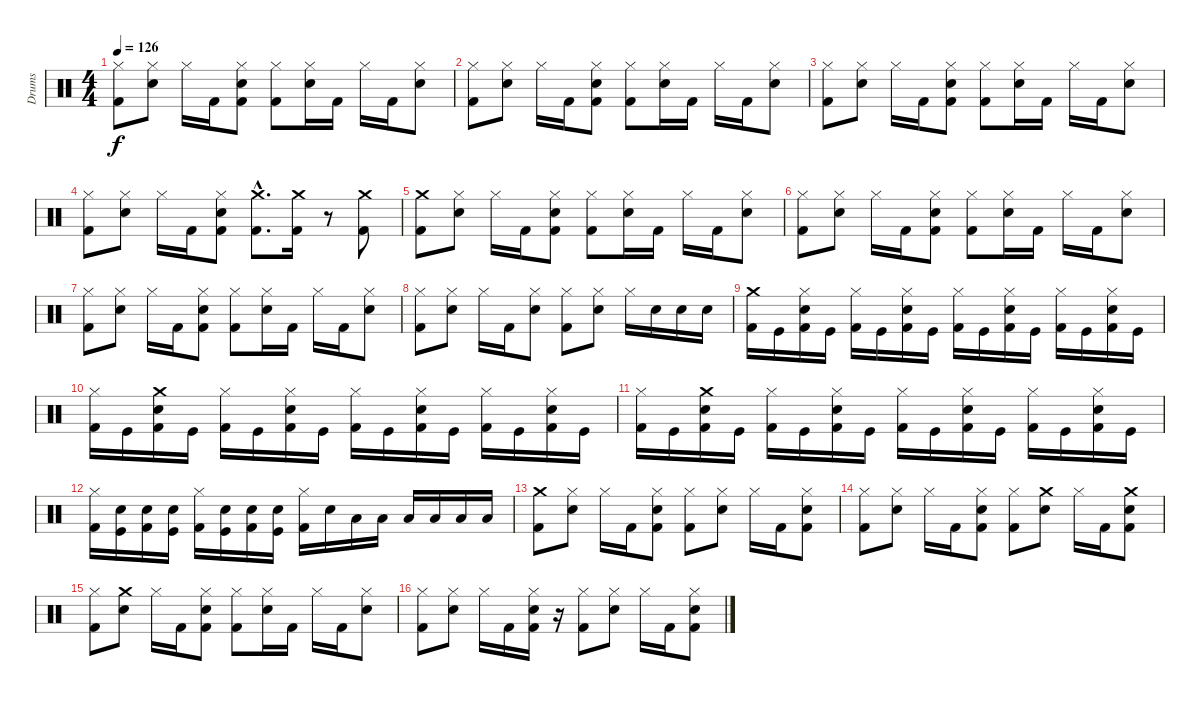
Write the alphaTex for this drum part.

\track ("Drums" "Drums") {instrument percussion}
\staff {score}
\articulation defaults
\ts (4 4)
\tempo 126
\clef neutral
\ks c
("Hi-Hat (closed)" "Kick (hit) 2").8{dy f} ("Snare (hit) 2" "Hi-Hat (closed)").8 "Hi-Hat (closed)".16 "Kick (hit) 2".16 ("Kick (hit) 2" "Snare (hit) 2" "Hi-Hat (closed)").8 ("Kick (hit) 2" "Hi-Hat (closed)").8 ("Snare (hit) 2" "Hi-Hat (closed)").16 "Kick (hit) 2".16 "Hi-Hat (closed)".16 "Kick (hit) 2".16 ("Snare (hit) 2" "Hi-Hat (closed)").8 |
("Hi-Hat (closed)" "Kick (hit) 2").8 ("Snare (hit) 2" "Hi-Hat (closed)").8 "Hi-Hat (closed)".16 "Kick (hit) 2".16 ("Kick (hit) 2" "Snare (hit) 2" "Hi-Hat (closed)").8 ("Kick (hit) 2" "Hi-Hat (closed)").8 ("Snare (hit) 2" "Hi-Hat (closed)").16 "Kick (hit) 2".16 "Hi-Hat (closed)".16 "Kick (hit) 2".16 ("Snare (hit) 2" "Hi-Hat (closed)").8 |
("Hi-Hat (closed)" "Kick (hit) 2").8 ("Snare (hit) 2" "Hi-Hat (closed)").8 "Hi-Hat (closed)".16 "Kick (hit) 2".16 ("Kick (hit) 2" "Snare (hit) 2" "Hi-Hat (closed)").8 ("Kick (hit) 2" "Hi-Hat (closed)").8 ("Snare (hit) 2" "Hi-Hat (closed)").16 "Kick (hit) 2".16 "Hi-Hat (closed)".16 "Kick (hit) 2".16 ("Snare (hit) 2" "Hi-Hat (closed)").8 |
("Hi-Hat (closed)" "Kick (hit) 2").8 ("Snare (hit) 2" "Hi-Hat (closed)").8 "Hi-Hat (closed)".16 "Kick (hit) 2".16 ("Kick (hit) 2" "Snare (hit) 2" "Hi-Hat (closed)").8 ("Kick (hit) 2"{hac} "Crash medium (hit)"{hac}).8{d} ("Kick (hit) 2" "Crash medium (hit)").16 r.8 ("Kick (hit) 2" "Crash medium (hit)").8 |
("Crash medium (hit)" "Kick (hit) 2").8 ("Snare (hit) 2" "Hi-Hat (closed)").8 "Hi-Hat (closed)".16 "Kick (hit) 2".16 ("Kick (hit) 2" "Snare (hit) 2" "Hi-Hat (closed)").8 ("Kick (hit) 2" "Hi-Hat (closed)").8 ("Snare (hit) 2" "Hi-Hat (closed)").16 "Kick (hit) 2".16 "Hi-Hat (closed)".16 "Kick (hit) 2".16 ("Snare (hit) 2" "Hi-Hat (closed)").8 |
("Hi-Hat (closed)" "Kick (hit) 2").8 ("Snare (hit) 2" "Hi-Hat (closed)").8 "Hi-Hat (closed)".16 "Kick (hit) 2".16 ("Kick (hit) 2" "Snare (hit) 2" "Hi-Hat (closed)").8 ("Kick (hit) 2" "Hi-Hat (closed)").8 ("Snare (hit) 2" "Hi-Hat (closed)").16 "Kick (hit) 2".16 "Hi-Hat (closed)".16 "Kick (hit) 2".16 ("Snare (hit) 2" "Hi-Hat (closed)").8 |
("Hi-Hat (closed)" "Kick (hit) 2").8 ("Snare (hit) 2" "Hi-Hat (closed)").8 "Hi-Hat (closed)".16 "Kick (hit) 2".16 ("Kick (hit) 2" "Snare (hit) 2" "Hi-Hat (closed)").8 ("Kick (hit) 2" "Hi-Hat (closed)").8 ("Snare (hit) 2" "Hi-Hat (closed)").16 "Kick (hit) 2".16 "Hi-Hat (closed)".16 "Kick (hit) 2".16 ("Snare (hit) 2" "Hi-Hat (closed)").8 |
("Hi-Hat (closed)" "Kick (hit) 2").8 ("Snare (hit) 2" "Hi-Hat (closed)").8 "Hi-Hat (closed)".16 "Kick (hit) 2".16 ("Snare (hit) 2" "Hi-Hat (closed)").8 ("Hi-Hat (closed)" "Kick (hit) 2").8 ("Hi-Hat (closed)" "Snare (hit) 2").8 "Hi-Hat (closed)".16 "Snare (hit) 2".16 "Snare (hit) 2".16 "Snare (hit) 2".16 |
("Crash medium (hit)" "Kick (hit) 2").16 "Kick (hit)".16 ("Snare (hit) 2" "Hi-Hat (closed)" "Kick (hit) 2").16 "Kick (hit)".16 ("Hi-Hat (closed)" "Kick (hit) 2").16 "Kick (hit)".16 ("Snare (hit) 2" "Hi-Hat (closed)" "Kick (hit) 2").16 "Kick (hit)".16 ("Hi-Hat (closed)" "Kick (hit) 2").16 "Kick (hit)".16 ("Snare (hit) 2" "Hi-Hat (closed)" "Kick (hit) 2").16 "Kick (hit)".16 ("Hi-Hat (closed)" "Kick (hit) 2").16 "Kick (hit)".16 ("Snare (hit) 2" "Hi-Hat (closed)" "Kick (hit) 2").16 "Kick (hit)".16 |
("Hi-Hat (closed)" "Kick (hit) 2").16 "Kick (hit)".16 ("Crash medium (hit)" "Snare (hit) 2" "Kick (hit) 2").16 "Kick (hit)".16 ("Hi-Hat (closed)" "Kick (hit) 2").16 "Kick (hit)".16 ("Snare (hit) 2" "Hi-Hat (closed)" "Kick (hit) 2").16 "Kick (hit)".16 ("Hi-Hat (closed)" "Kick (hit) 2").16 "Kick (hit)".16 ("Snare (hit) 2" "Hi-Hat (closed)" "Kick (hit) 2").16 "Kick (hit)".16 ("Hi-Hat (closed)" "Kick (hit) 2").16 "Kick (hit)".16 ("Snare (hit) 2" "Hi-Hat (closed)" "Kick (hit) 2").16 "Kick (hit)".16 |
("Hi-Hat (closed)" "Kick (hit) 2").16 "Kick (hit)".16 ("Crash medium (hit)" "Snare (hit) 2" "Kick (hit) 2").16 "Kick (hit)".16 ("Hi-Hat (closed)" "Kick (hit) 2").16 "Kick (hit)".16 ("Snare (hit) 2" "Hi-Hat (closed)" "Kick (hit) 2").16 "Kick (hit)".16 ("Hi-Hat (closed)" "Kick (hit) 2").16 "Kick (hit)".16 ("Snare (hit) 2" "Hi-Hat (closed)" "Kick (hit) 2").16 "Kick (hit)".16 ("Hi-Hat (closed)" "Kick (hit) 2").16 "Kick (hit)".16 ("Snare (hit) 2" "Hi-Hat (closed)" "Kick (hit) 2").16 "Kick (hit)".16 |
("Hi-Hat (closed)" "Kick (hit) 2").16 ("Snare (hit) 2" "Kick (hit)").16 ("Snare (hit) 2" "Kick (hit) 2").16 ("Snare (hit) 2" "Kick (hit)").16 ("Hi-Hat (closed)" "Kick (hit) 2").16 ("Snare (hit) 2" "Kick (hit)").16 ("Snare (hit) 2" "Kick (hit) 2").16 ("Snare (hit) 2" "Kick (hit)").16 ("Hi-Hat (closed)" "Kick (hit) 2").16 "Snare (hit) 2".16 "Low Tom (hit)".16 "Low Tom (hit)".16 "Low Tom (hit)".16 "Low Tom (hit)".16 "Low Tom (hit)".16 "Low Tom (hit)".16 |
("Crash medium (hit)" "Kick (hit) 2").8 ("Snare (hit) 2" "Hi-Hat (closed)").8 "Hi-Hat (closed)".16 "Kick (hit) 2".16 ("Kick (hit) 2" "Snare (hit) 2" "Hi-Hat (closed)").8 ("Hi-Hat (closed)" "Kick (hit) 2").8 ("Snare (hit) 2" "Hi-Hat (closed)").8 "Hi-Hat (closed)".16 "Kick (hit) 2".16 ("Snare (hit) 2" "Hi-Hat (closed)" "Kick (hit) 2").8 |
("Hi-Hat (closed)" "Kick (hit) 2").8 ("Snare (hit) 2" "Hi-Hat (closed)").8 "Hi-Hat (closed)".16 "Kick (hit) 2".16 ("Snare (hit) 2" "Hi-Hat (closed)" "Kick (hit) 2").8 ("Hi-Hat (closed)" "Kick (hit) 2").8 ("Crash medium (hit)" "Snare (hit) 2").8 "Hi-Hat (closed)".16 "Kick (hit) 2".16 ("Crash medium (hit)" "Snare (hit) 2" "Kick (hit) 2").8 |
("Hi-Hat (closed)" "Kick (hit) 2").8 ("Crash medium (hit)" "Snare (hit) 2").8 "Hi-Hat (closed)".16 "Kick (hit) 2".16 ("Hi-Hat (closed)" "Snare (hit) 2" "Kick (hit) 2").8 ("Hi-Hat (closed)" "Kick (hit) 2").8 ("Hi-Hat (closed)" "Snare (hit) 2").16 "Kick (hit) 2".16 "Hi-Hat (closed)".16 "Kick (hit) 2".16 ("Hi-Hat (closed)" "Snare (hit) 2").8 |
("Hi-Hat (closed)" "Kick (hit) 2").8 ("Snare (hit) 2" "Hi-Hat (closed)").8 "Hi-Hat (closed)".16 "Kick (hit) 2".16 ("Kick (hit) 2" "Snare (hit) 2" "Hi-Hat (closed)").16 r.16 ("Hi-Hat (closed)" "Kick (hit) 2").8 ("Snare (hit) 2" "Hi-Hat (closed)").8 "Hi-Hat (closed)".16 "Kick (hit) 2".16 ("Snare (hit) 2" "Hi-Hat (closed)" "Kick (hit) 2").8
